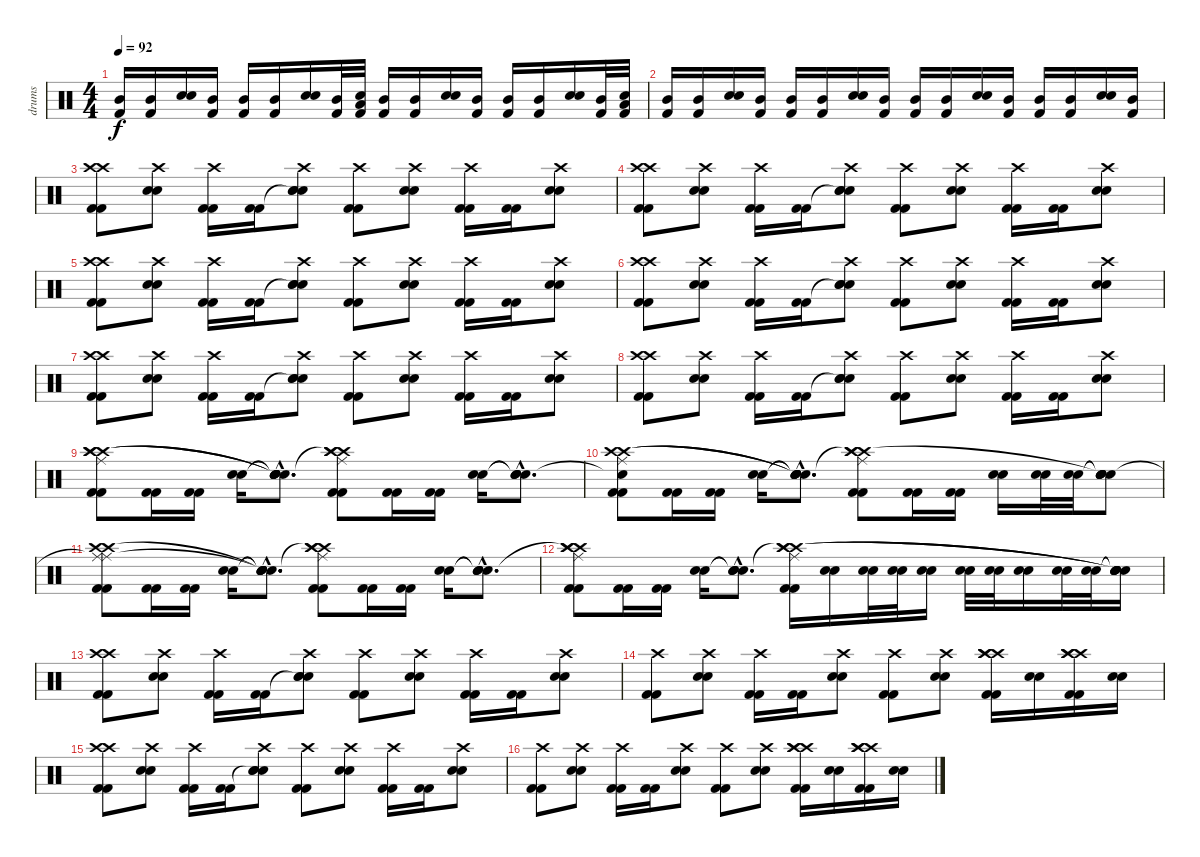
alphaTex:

\track ("drums" "drums") {instrument percussion}
\staff {score}
\articulation defaults
\ts (4 4)
\tempo 92
\clef neutral
\ks c
("Mid Tom (hit)" "Kick (hit) 2").16{dy f} ("Mid Tom (hit)" "Kick (hit) 2").16 ("Electric Snare (hit)" "Electric Snare (hit)").16 ("Mid Tom (hit)" "Kick (hit) 2").16 ("Mid Tom (hit)" "Kick (hit) 2").16 ("Mid Tom (hit)" "Kick (hit) 2").16 ("Electric Snare (hit)" "Electric Snare (hit)").16 ("Mid Tom (hit)" "Kick (hit) 2").32 ("Low Tom (hit)" "Electric Snare (hit)" "Kick (hit) 2").32 ("Mid Tom (hit)" "Kick (hit) 2").16 ("Mid Tom (hit)" "Kick (hit) 2").16 ("Electric Snare (hit)" "Electric Snare (hit)").16 ("Mid Tom (hit)" "Kick (hit) 2").16 ("Mid Tom (hit)" "Kick (hit) 2").16 ("Mid Tom (hit)" "Kick (hit) 2").16 ("Electric Snare (hit)" "Electric Snare (hit)").16 ("Mid Tom (hit)" "Kick (hit) 2").32 ("Low Tom (hit)" "Electric Snare (hit)" "Kick (hit) 2").32 |
("Mid Tom (hit)" "Kick (hit) 2").16 ("Mid Tom (hit)" "Kick (hit) 2").16 ("Electric Snare (hit)" "Electric Snare (hit)").16 ("Mid Tom (hit)" "Kick (hit) 2").16 ("Mid Tom (hit)" "Kick (hit) 2").16 ("Mid Tom (hit)" "Kick (hit) 2").16 ("Electric Snare (hit)" "Electric Snare (hit)").16 ("Mid Tom (hit)" "Kick (hit) 2").16 ("Mid Tom (hit)" "Kick (hit) 2").16 ("Mid Tom (hit)" "Kick (hit) 2").16 ("Electric Snare (hit)" "Electric Snare (hit)").16 ("Mid Tom (hit)" "Kick (hit) 2").16 ("Mid Tom (hit)" "Kick (hit) 2").16 ("Mid Tom (hit)" "Kick (hit) 2").16 ("Electric Snare (hit)" "Electric Snare (hit)").16 ("Mid Tom (hit)" "Kick (hit) 2").16 |
("Crash high (hit)" "Crash high (hit)" "Kick (hit) 2" "Kick (hit) 2").8 ("Crash high (hit)" "Electric Snare (hit)" "Electric Snare (hit)").8 ("Crash high (hit)" "Kick (hit) 2" "Kick (hit) 2").16 ("Kick (hit) 2" "Kick (hit) 2").16 ("Crash high (hit)" "Snare (hit)"{t} "Electric Snare (hit)" "Electric Snare (hit)").8 ("Crash high (hit)" "Kick (hit) 2" "Kick (hit) 2").8 ("Crash high (hit)" "Electric Snare (hit)" "Electric Snare (hit)").8 ("Crash high (hit)" "Kick (hit) 2" "Kick (hit) 2").16 ("Kick (hit) 2" "Kick (hit) 2").16 ("Crash high (hit)" "Electric Snare (hit)" "Electric Snare (hit)").8 |
("Crash high (hit)" "Crash high (hit)" "Kick (hit) 2" "Kick (hit) 2").8 ("Crash high (hit)" "Electric Snare (hit)" "Electric Snare (hit)").8 ("Crash high (hit)" "Kick (hit) 2" "Kick (hit) 2").16 ("Kick (hit) 2" "Kick (hit) 2").16 ("Crash high (hit)" "Snare (hit)"{t} "Electric Snare (hit)" "Electric Snare (hit)").8 ("Crash high (hit)" "Kick (hit) 2" "Kick (hit) 2").8 ("Crash high (hit)" "Electric Snare (hit)" "Electric Snare (hit)").8 ("Crash high (hit)" "Kick (hit) 2" "Kick (hit) 2").16 ("Kick (hit) 2" "Kick (hit) 2").16 ("Crash high (hit)" "Electric Snare (hit)" "Electric Snare (hit)").8 |
("Crash high (hit)" "Crash high (hit)" "Kick (hit) 2" "Kick (hit) 2").8 ("Crash high (hit)" "Electric Snare (hit)" "Electric Snare (hit)").8 ("Crash high (hit)" "Kick (hit) 2" "Kick (hit) 2").16 ("Kick (hit) 2" "Kick (hit) 2").16 ("Crash high (hit)" "Snare (hit)"{t} "Electric Snare (hit)" "Electric Snare (hit)").8 ("Crash high (hit)" "Kick (hit) 2" "Kick (hit) 2").8 ("Crash high (hit)" "Electric Snare (hit)" "Electric Snare (hit)").8 ("Crash high (hit)" "Kick (hit) 2" "Kick (hit) 2").16 ("Kick (hit) 2" "Kick (hit) 2").16 ("Crash high (hit)" "Electric Snare (hit)" "Electric Snare (hit)").8 |
("Crash high (hit)" "Crash high (hit)" "Kick (hit) 2" "Kick (hit) 2").8 ("Crash high (hit)" "Electric Snare (hit)" "Electric Snare (hit)").8 ("Crash high (hit)" "Kick (hit) 2" "Kick (hit) 2").16 ("Kick (hit) 2" "Kick (hit) 2").16 ("Crash high (hit)" "Snare (hit)"{t} "Electric Snare (hit)" "Electric Snare (hit)").8 ("Crash high (hit)" "Kick (hit) 2" "Kick (hit) 2").8 ("Crash high (hit)" "Electric Snare (hit)" "Electric Snare (hit)").8 ("Crash high (hit)" "Kick (hit) 2" "Kick (hit) 2").16 ("Kick (hit) 2" "Kick (hit) 2").16 ("Crash high (hit)" "Electric Snare (hit)" "Electric Snare (hit)").8 |
("Crash high (hit)" "Crash high (hit)" "Kick (hit) 2" "Kick (hit) 2").8 ("Crash high (hit)" "Electric Snare (hit)" "Electric Snare (hit)").8 ("Crash high (hit)" "Kick (hit) 2" "Kick (hit) 2").16 ("Kick (hit) 2" "Kick (hit) 2").16 ("Crash high (hit)" "Snare (hit)"{t} "Electric Snare (hit)" "Electric Snare (hit)").8 ("Crash high (hit)" "Kick (hit) 2" "Kick (hit) 2").8 ("Crash high (hit)" "Electric Snare (hit)" "Electric Snare (hit)").8 ("Crash high (hit)" "Kick (hit) 2" "Kick (hit) 2").16 ("Kick (hit) 2" "Kick (hit) 2").16 ("Crash high (hit)" "Electric Snare (hit)" "Electric Snare (hit)").8 |
("Crash high (hit)" "Crash high (hit)" "Kick (hit) 2" "Kick (hit) 2").8 ("Crash high (hit)" "Electric Snare (hit)" "Electric Snare (hit)").8 ("Crash high (hit)" "Kick (hit) 2" "Kick (hit) 2").16 ("Kick (hit) 2" "Kick (hit) 2").16 ("Crash high (hit)" "Snare (hit)"{t} "Electric Snare (hit)" "Electric Snare (hit)").8 ("Crash high (hit)" "Kick (hit) 2" "Kick (hit) 2").8 ("Crash high (hit)" "Electric Snare (hit)" "Electric Snare (hit)").8 ("Crash high (hit)" "Kick (hit) 2" "Kick (hit) 2").16 ("Kick (hit) 2" "Kick (hit) 2").16 ("Crash high (hit)" "Electric Snare (hit)" "Electric Snare (hit)").8 |
("Ride (middle)" "Crash high (hit)" "Crash high (hit)" "Crash high (hit)" "Kick (hit) 2" "Kick (hit) 2").8 ("Kick (hit) 2" "Kick (hit) 2").16 ("Kick (hit) 2" "Kick (hit) 2").16 ("Electric Snare (hit)" "Electric Snare (hit)").16 ("Snare (hit)"{hac t} "Snare (hit)"{hac t} "Snare (hit)"{hac t} "Snare (hit)"{hac t} "Electric Snare (hit)"{hac} "Electric Snare (hit)"{hac}).8{d} ("Ride (middle)" "Crash high (hit)" "Crash high (hit)" "Crash high (hit)"{t} "Kick (hit) 2" "Kick (hit) 2").8 ("Kick (hit) 2" "Kick (hit) 2").16 ("Kick (hit) 2" "Kick (hit) 2").16 ("Electric Snare (hit)" "Electric Snare (hit)").16 ("Snare (hit)"{hac t} "Snare (hit)"{hac t} "Electric Snare (hit)"{hac} "Electric Snare (hit)"{hac}).8{d} |
("Ride (middle)" "Snare (hit)"{t} "Crash high (hit)" "Crash high (hit)" "Kick (hit) 2" "Kick (hit) 2").8 ("Kick (hit) 2" "Kick (hit) 2").16 ("Kick (hit) 2" "Kick (hit) 2").16 ("Electric Snare (hit)" "Electric Snare (hit)").16 ("Snare (hit)"{hac t} "Snare (hit)"{hac t} "Snare (hit)"{hac t} "Snare (hit)"{hac t} "Electric Snare (hit)"{hac} "Electric Snare (hit)"{hac}).8{d} ("Ride (middle)" "Crash high (hit)" "Crash high (hit)"{t} "Crash high (hit)" "Kick (hit) 2" "Kick (hit) 2").8 ("Kick (hit) 2" "Kick (hit) 2").16 ("Kick (hit) 2" "Kick (hit) 2").16 ("Electric Snare (hit)" "Electric Snare (hit)").16 ("Electric Snare (hit)" "Electric Snare (hit)").32 ("Electric Snare (hit)" "Electric Snare (hit)").32 ("Snare (hit)"{t} "Snare (hit)"{t} "Snare (hit)"{t} "Electric Snare (hit)" "Electric Snare (hit)").8 |
("Ride (middle)"{t} "Crash high (hit)" "Ride (middle)" "Crash high (hit)" "Kick (hit) 2" "Kick (hit) 2").8 ("Kick (hit) 2" "Kick (hit) 2").16 ("Kick (hit) 2" "Kick (hit) 2").16 ("Electric Snare (hit)" "Electric Snare (hit)").16 ("Snare (hit)"{hac t} "Snare (hit)"{hac t} "Snare (hit)"{hac t} "Snare (hit)"{hac t} "Electric Snare (hit)"{hac} "Electric Snare (hit)"{hac}).8{d} ("Ride (middle)" "Crash high (hit)" "Crash high (hit)" "Crash high (hit)"{t} "Kick (hit) 2" "Kick (hit) 2").8 ("Kick (hit) 2" "Kick (hit) 2").16 ("Kick (hit) 2" "Kick (hit) 2").16 ("Electric Snare (hit)" "Electric Snare (hit)").16 ("Snare (hit)"{hac t} "Snare (hit)"{hac t} "Electric Snare (hit)"{hac} "Electric Snare (hit)"{hac}).8{d} |
("Ride (middle)" "Crash high (hit)" "Crash high (hit)"{t} "Crash high (hit)" "Kick (hit) 2" "Kick (hit) 2").8 ("Kick (hit) 2" "Kick (hit) 2").16 ("Kick (hit) 2" "Kick (hit) 2").16 ("Electric Snare (hit)" "Electric Snare (hit)").16 ("Snare (hit)"{hac t} "Snare (hit)"{hac t} "Electric Snare (hit)"{hac} "Electric Snare (hit)"{hac}).8{d} ("Ride (middle)" "Crash high (hit)"{t} "Crash high (hit)" "Crash high (hit)" "Kick (hit) 2" "Kick (hit) 2").16 ("Electric Snare (hit)" "Electric Snare (hit)").16 ("Electric Snare (hit)" "Electric Snare (hit)").32 ("Electric Snare (hit)" "Electric Snare (hit)").32 ("Electric Snare (hit)" "Electric Snare (hit)").16 ("Electric Snare (hit)" "Electric Snare (hit)").32 ("Electric Snare (hit)" "Electric Snare (hit)").32 ("Electric Snare (hit)" "Electric Snare (hit)").16 ("Electric Snare (hit)" "Electric Snare (hit)").32 ("Electric Snare (hit)" "Electric Snare (hit)").32 ("Snare (hit)"{t} "Snare (hit)"{t} "Snare (hit)"{t} "Electric Snare (hit)"{t} "Electric Snare (hit)" "Electric Snare (hit)").16 |
("Crash high (hit)" "Crash high (hit)" "Kick (hit) 2" "Kick (hit) 2").8 ("Crash high (hit)" "Electric Snare (hit)" "Electric Snare (hit)").8 ("Crash high (hit)" "Kick (hit) 2" "Kick (hit) 2").16 ("Kick (hit) 2" "Kick (hit) 2").16 ("Crash high (hit)" "Snare (hit)"{t} "Electric Snare (hit)" "Electric Snare (hit)").8 ("Crash high (hit)" "Kick (hit) 2" "Kick (hit) 2").8 ("Crash high (hit)" "Electric Snare (hit)" "Electric Snare (hit)").8 ("Crash high (hit)" "Kick (hit) 2" "Kick (hit) 2").16 ("Kick (hit) 2" "Kick (hit) 2").16 ("Crash high (hit)" "Electric Snare (hit)" "Electric Snare (hit)").8 |
("Crash high (hit)" "Kick (hit) 2" "Kick (hit) 2").8 ("Crash high (hit)" "Electric Snare (hit)" "Electric Snare (hit)").8 ("Crash high (hit)" "Kick (hit) 2" "Kick (hit) 2").16 ("Kick (hit) 2" "Kick (hit) 2").16 ("Crash high (hit)" "Electric Snare (hit)" "Electric Snare (hit)").8 ("Crash high (hit)" "Kick (hit) 2" "Kick (hit) 2").8 ("Crash high (hit)" "Electric Snare (hit)" "Electric Snare (hit)").8 ("Crash high (hit)" "Crash high (hit)" "Crash high (hit)" "Kick (hit) 2" "Kick (hit) 2").16 ("Electric Snare (hit)" "Electric Snare (hit)").16 ("Crash high (hit)" "Crash high (hit)" "Crash high (hit)" "Kick (hit) 2" "Kick (hit) 2").16 ("Electric Snare (hit)" "Electric Snare (hit)").16 |
("Crash high (hit)" "Crash high (hit)" "Kick (hit) 2" "Kick (hit) 2").8 ("Crash high (hit)" "Electric Snare (hit)" "Electric Snare (hit)").8 ("Crash high (hit)" "Kick (hit) 2" "Kick (hit) 2").16 ("Kick (hit) 2" "Kick (hit) 2").16 ("Crash high (hit)" "Snare (hit)"{t} "Electric Snare (hit)" "Electric Snare (hit)").8 ("Crash high (hit)" "Kick (hit) 2" "Kick (hit) 2").8 ("Crash high (hit)" "Electric Snare (hit)" "Electric Snare (hit)").8 ("Crash high (hit)" "Kick (hit) 2" "Kick (hit) 2").16 ("Kick (hit) 2" "Kick (hit) 2").16 ("Crash high (hit)" "Electric Snare (hit)" "Electric Snare (hit)").8 |
("Crash high (hit)" "Kick (hit) 2" "Kick (hit) 2").8 ("Crash high (hit)" "Electric Snare (hit)" "Electric Snare (hit)").8 ("Crash high (hit)" "Kick (hit) 2" "Kick (hit) 2").16 ("Kick (hit) 2" "Kick (hit) 2").16 ("Crash high (hit)" "Electric Snare (hit)" "Electric Snare (hit)").8 ("Crash high (hit)" "Kick (hit) 2" "Kick (hit) 2").8 ("Crash high (hit)" "Electric Snare (hit)" "Electric Snare (hit)").8 ("Crash high (hit)" "Crash high (hit)" "Crash high (hit)" "Kick (hit) 2" "Kick (hit) 2").16 ("Electric Snare (hit)" "Electric Snare (hit)").16 ("Crash high (hit)" "Crash high (hit)" "Crash high (hit)" "Kick (hit) 2" "Kick (hit) 2").16 ("Electric Snare (hit)" "Electric Snare (hit)").16
